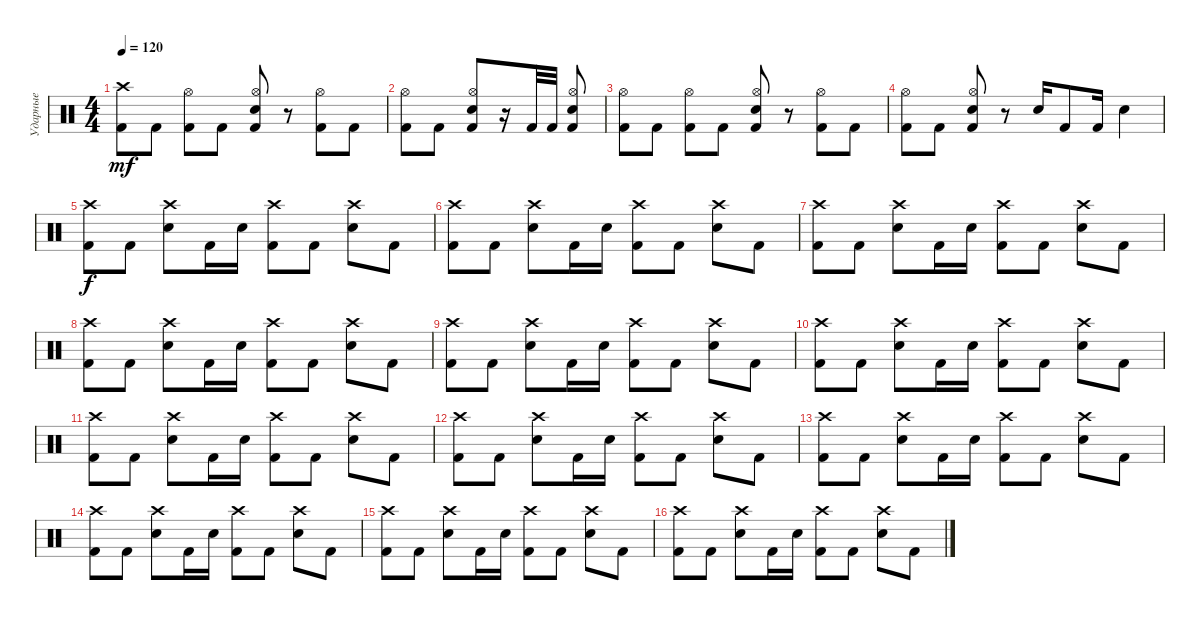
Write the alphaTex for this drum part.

\track ("Ударные" "Ударные") {instrument percussion}
\staff {score}
\articulation defaults
\ts (4 4)
\tempo 120
\clef neutral
\ks c
("Crash high (hit)" "Kick (hit) 2").8{dy mf} "Kick (hit) 2".8 ("Hi-Hat (open)" "Kick (hit) 2").8 "Kick (hit) 2".8 ("Hi-Hat (open)" "Electric Snare (hit)" "Kick (hit) 2").8 r.8 ("Hi-Hat (open)" "Kick (hit) 2").8 "Kick (hit) 2".8 |
("Hi-Hat (open)" "Kick (hit) 2").8 "Kick (hit) 2".8 ("Hi-Hat (open)" "Electric Snare (hit)" "Kick (hit) 2").8 r.16 "Kick (hit) 2".32 "Kick (hit) 2".32 ("Hi-Hat (open)" "Electric Snare (hit)" "Kick (hit) 2").8 |
("Hi-Hat (open)" "Kick (hit) 2").8 "Kick (hit) 2".8 ("Hi-Hat (open)" "Kick (hit) 2").8 "Kick (hit) 2".8 ("Hi-Hat (open)" "Electric Snare (hit)" "Kick (hit) 2").8 r.8 ("Hi-Hat (open)" "Kick (hit) 2").8 "Kick (hit) 2".8 |
("Hi-Hat (open)" "Kick (hit) 2").8 "Kick (hit) 2".8 ("Hi-Hat (open)" "Electric Snare (hit)" "Kick (hit) 2").8 r.8 "Electric Snare (hit)".16 "Kick (hit) 2".8 "Kick (hit) 2".16 "Electric Snare (hit)".4 |
("Crash high (hit)" "Kick (hit) 2").8{dy f} "Kick (hit) 2".8 ("Crash high (hit)" "Electric Snare (hit)").8 "Kick (hit) 2".16 "Electric Snare (hit)".16 ("Crash high (hit)" "Kick (hit) 2").8 "Kick (hit) 2".8 ("Crash high (hit)" "Electric Snare (hit)").8 "Kick (hit) 2".8 |
("Crash high (hit)" "Kick (hit) 2").8 "Kick (hit) 2".8 ("Crash high (hit)" "Electric Snare (hit)").8 "Kick (hit) 2".16 "Electric Snare (hit)".16 ("Crash high (hit)" "Kick (hit) 2").8 "Kick (hit) 2".8 ("Crash high (hit)" "Electric Snare (hit)").8 "Kick (hit) 2".8 |
("Crash high (hit)" "Kick (hit) 2").8 "Kick (hit) 2".8 ("Crash high (hit)" "Electric Snare (hit)").8 "Kick (hit) 2".16 "Electric Snare (hit)".16 ("Crash high (hit)" "Kick (hit) 2").8 "Kick (hit) 2".8 ("Crash high (hit)" "Electric Snare (hit)").8 "Kick (hit) 2".8 |
("Crash high (hit)" "Kick (hit) 2").8 "Kick (hit) 2".8 ("Crash high (hit)" "Electric Snare (hit)").8 "Kick (hit) 2".16 "Electric Snare (hit)".16 ("Crash high (hit)" "Kick (hit) 2").8 "Kick (hit) 2".8 ("Crash high (hit)" "Electric Snare (hit)").8 "Kick (hit) 2".8 |
("Crash high (hit)" "Kick (hit) 2").8 "Kick (hit) 2".8 ("Crash high (hit)" "Electric Snare (hit)").8 "Kick (hit) 2".16 "Electric Snare (hit)".16 ("Crash high (hit)" "Kick (hit) 2").8 "Kick (hit) 2".8 ("Crash high (hit)" "Electric Snare (hit)").8 "Kick (hit) 2".8 |
("Crash high (hit)" "Kick (hit) 2").8 "Kick (hit) 2".8 ("Crash high (hit)" "Electric Snare (hit)").8 "Kick (hit) 2".16 "Electric Snare (hit)".16 ("Crash high (hit)" "Kick (hit) 2").8 "Kick (hit) 2".8 ("Crash high (hit)" "Electric Snare (hit)").8 "Kick (hit) 2".8 |
("Crash high (hit)" "Kick (hit) 2").8 "Kick (hit) 2".8 ("Crash high (hit)" "Electric Snare (hit)").8 "Kick (hit) 2".16 "Electric Snare (hit)".16 ("Crash high (hit)" "Kick (hit) 2").8 "Kick (hit) 2".8 ("Crash high (hit)" "Electric Snare (hit)").8 "Kick (hit) 2".8 |
("Crash high (hit)" "Kick (hit) 2").8 "Kick (hit) 2".8 ("Crash high (hit)" "Electric Snare (hit)").8 "Kick (hit) 2".16 "Electric Snare (hit)".16 ("Crash high (hit)" "Kick (hit) 2").8 "Kick (hit) 2".8 ("Crash high (hit)" "Electric Snare (hit)").8 "Kick (hit) 2".8 |
("Crash high (hit)" "Kick (hit) 2").8 "Kick (hit) 2".8 ("Crash high (hit)" "Electric Snare (hit)").8 "Kick (hit) 2".16 "Electric Snare (hit)".16 ("Crash high (hit)" "Kick (hit) 2").8 "Kick (hit) 2".8 ("Crash high (hit)" "Electric Snare (hit)").8 "Kick (hit) 2".8 |
("Crash high (hit)" "Kick (hit) 2").8 "Kick (hit) 2".8 ("Crash high (hit)" "Electric Snare (hit)").8 "Kick (hit) 2".16 "Electric Snare (hit)".16 ("Crash high (hit)" "Kick (hit) 2").8 "Kick (hit) 2".8 ("Crash high (hit)" "Electric Snare (hit)").8 "Kick (hit) 2".8 |
("Crash high (hit)" "Kick (hit) 2").8 "Kick (hit) 2".8 ("Crash high (hit)" "Electric Snare (hit)").8 "Kick (hit) 2".16 "Electric Snare (hit)".16 ("Crash high (hit)" "Kick (hit) 2").8 "Kick (hit) 2".8 ("Crash high (hit)" "Electric Snare (hit)").8 "Kick (hit) 2".8 |
("Crash high (hit)" "Kick (hit) 2").8 "Kick (hit) 2".8 ("Crash high (hit)" "Electric Snare (hit)").8 "Kick (hit) 2".16 "Electric Snare (hit)".16 ("Crash high (hit)" "Kick (hit) 2").8 "Kick (hit) 2".8 ("Crash high (hit)" "Electric Snare (hit)").8 "Kick (hit) 2".8
